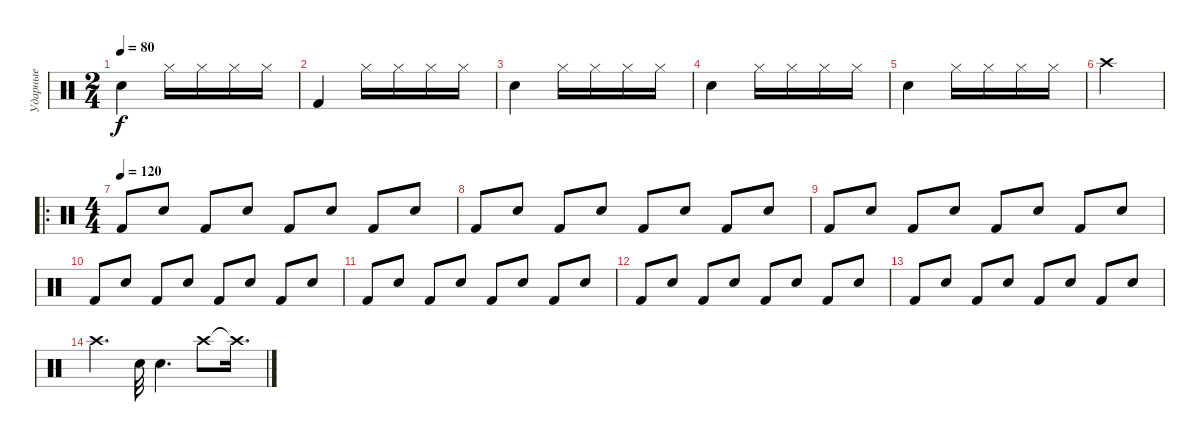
\track ("Ударные" "Ударные") {instrument percussion}
\staff {score}
\articulation defaults
\ts (2 4)
\tempo 80
\clef neutral
\ks c "Snare (hit) 2".4{dy f} "Hi-Hat (closed)".16 "Hi-Hat (closed)".16 "Hi-Hat (closed)".16 "Hi-Hat (closed)".16
|
"Kick (hit) 2".4 "Hi-Hat (closed)".16 "Hi-Hat (closed)".16 "Hi-Hat (closed)".16 "Hi-Hat (closed)".16 |
"Snare (hit) 2".4 "Hi-Hat (closed)".16 "Hi-Hat (closed)".16 "Hi-Hat (closed)".16 "Hi-Hat (closed)".16 |
"Snare (hit) 2".4 "Hi-Hat (closed)".16 "Hi-Hat (closed)".16 "Hi-Hat (closed)".16 "Hi-Hat (closed)".16 |
"Snare (hit) 2".4 "Hi-Hat (closed)".16 "Hi-Hat (closed)".16 "Hi-Hat (closed)".16 "Hi-Hat (closed)".16 |
"Crash high (hit)".2 |
\ro
\ts (4 4)
\tempo (120)
"Kick (hit) 2".8 "Snare (hit) 2".8 "Kick (hit) 2".8 "Snare (hit) 2".8 "Kick (hit) 2".8 "Snare (hit) 2".8 "Kick (hit) 2".8 "Snare (hit) 2".8 |
"Kick (hit) 2".8 "Snare (hit) 2".8 "Kick (hit) 2".8 "Snare (hit) 2".8 "Kick (hit) 2".8 "Snare (hit) 2".8 "Kick (hit) 2".8 "Snare (hit) 2".8 |
"Kick (hit) 2".8 "Snare (hit) 2".8 "Kick (hit) 2".8 "Snare (hit) 2".8 "Kick (hit) 2".8 "Snare (hit) 2".8 "Kick (hit) 2".8 "Snare (hit) 2".8 |
"Kick (hit) 2".8 "Snare (hit) 2".8 "Kick (hit) 2".8 "Snare (hit) 2".8 "Kick (hit) 2".8 "Snare (hit) 2".8 "Kick (hit) 2".8 "Snare (hit) 2".8 |
"Kick (hit) 2".8 "Snare (hit) 2".8 "Kick (hit) 2".8 "Snare (hit) 2".8 "Kick (hit) 2".8 "Snare (hit) 2".8 "Kick (hit) 2".8 "Snare (hit) 2".8 |
"Kick (hit) 2".8 "Snare (hit) 2".8 "Kick (hit) 2".8 "Snare (hit) 2".8 "Kick (hit) 2".8 "Snare (hit) 2".8 "Kick (hit) 2".8 "Snare (hit) 2".8 |
"Kick (hit) 2".8 "Snare (hit) 2".8 "Kick (hit) 2".8 "Snare (hit) 2".8 "Kick (hit) 2".8 "Snare (hit) 2".8 "Kick (hit) 2".8 "Snare (hit) 2".8 |
"Crash high (hit)".4{d} "Snare (hit) 2".32 "Snare (hit) 2".4{d} "Crash high (hit)".8 "Crash high (hit)"{t}.16{d}
